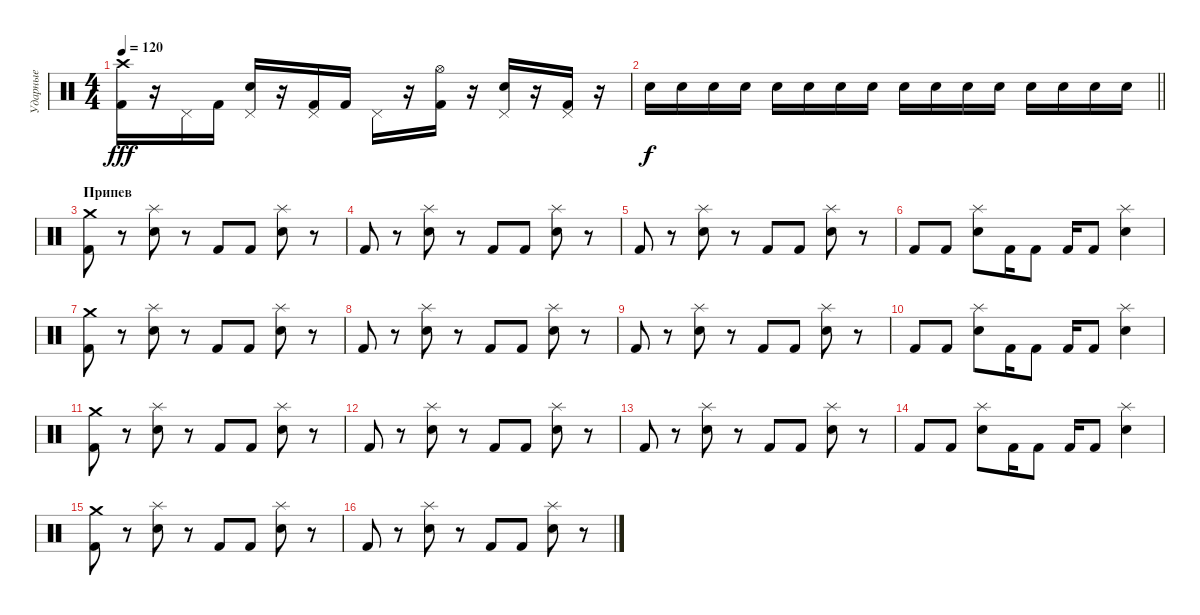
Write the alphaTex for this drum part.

\track ("Ударные" "Ударные") {instrument percussion}
\staff {score}
\articulation defaults
\ts (4 4)
\tempo 120
\clef neutral
\ks c
("Crash high (hit)" "Kick (hit) 2").16{dy fff} r.16 "Pedal Hi-Hat (hit)".16 "Kick (hit) 2".16 ("Pedal Hi-Hat (hit)" "Snare (hit) 2").16 r.16 ("Pedal Hi-Hat (hit)" "Kick (hit) 2").16 "Kick (hit) 2".16 "Pedal Hi-Hat (hit)".16 r.16 ("Hi-Hat (open)" "Kick (hit) 2").16 r.16 ("Pedal Hi-Hat (hit)" "Snare (hit) 2").16 r.16 ("Pedal Hi-Hat (hit)" "Kick (hit) 2").16 r.16 |
\barLineRight lightlight "Snare (hit) 2".16{dy f} "Snare (hit) 2".16 "Snare (hit) 2".16 "Snare (hit) 2".16 "Snare (hit) 2".16 "Snare (hit) 2".16 "Snare (hit) 2".16 "Snare (hit) 2".16 "Snare (hit) 2".16 "Snare (hit) 2".16 "Snare (hit) 2".16 "Snare (hit) 2".16 "Snare (hit) 2".16 "Snare (hit) 2".16 "Snare (hit) 2".16 "Snare (hit) 2".16
|
\section ("" "Припев")
("Kick (hit) 2" "Crash medium (hit)").8 r.8 ("Electric Snare (hit)" "Splash (hit)").8 r.8 "Kick (hit) 2".8 "Kick (hit) 2".8 ("Electric Snare (hit)" "Splash (hit)").8 r.8 |
"Kick (hit) 2".8 r.8 ("Electric Snare (hit)" "Splash (hit)").8 r.8 "Kick (hit) 2".8 "Kick (hit) 2".8 ("Electric Snare (hit)" "Splash (hit)").8 r.8 |
"Kick (hit) 2".8 r.8 ("Electric Snare (hit)" "Splash (hit)").8 r.8 "Kick (hit) 2".8 "Kick (hit) 2".8 ("Electric Snare (hit)" "Splash (hit)").8 r.8 |
"Kick (hit) 2".8 "Kick (hit) 2".8 ("Electric Snare (hit)" "Splash (hit)").8 "Kick (hit) 2".16 "Kick (hit) 2".8 "Kick (hit) 2".16 "Kick (hit) 2".8 ("Electric Snare (hit)" "Splash (hit)").4 |
("Kick (hit) 2" "Crash medium (hit)").8 r.8 ("Electric Snare (hit)" "Splash (hit)").8 r.8 "Kick (hit) 2".8 "Kick (hit) 2".8 ("Electric Snare (hit)" "Splash (hit)").8 r.8 |
"Kick (hit) 2".8 r.8 ("Electric Snare (hit)" "Splash (hit)").8 r.8 "Kick (hit) 2".8 "Kick (hit) 2".8 ("Electric Snare (hit)" "Splash (hit)").8 r.8 |
"Kick (hit) 2".8 r.8 ("Electric Snare (hit)" "Splash (hit)").8 r.8 "Kick (hit) 2".8 "Kick (hit) 2".8 ("Electric Snare (hit)" "Splash (hit)").8 r.8 |
"Kick (hit) 2".8 "Kick (hit) 2".8 ("Electric Snare (hit)" "Splash (hit)").8 "Kick (hit) 2".16 "Kick (hit) 2".8 "Kick (hit) 2".16 "Kick (hit) 2".8 ("Electric Snare (hit)" "Splash (hit)").4 |
("Kick (hit) 2" "Crash medium (hit)").8 r.8 ("Electric Snare (hit)" "Splash (hit)").8 r.8 "Kick (hit) 2".8 "Kick (hit) 2".8 ("Electric Snare (hit)" "Splash (hit)").8 r.8 |
"Kick (hit) 2".8 r.8 ("Electric Snare (hit)" "Splash (hit)").8 r.8 "Kick (hit) 2".8 "Kick (hit) 2".8 ("Electric Snare (hit)" "Splash (hit)").8 r.8 |
"Kick (hit) 2".8 r.8 ("Electric Snare (hit)" "Splash (hit)").8 r.8 "Kick (hit) 2".8 "Kick (hit) 2".8 ("Electric Snare (hit)" "Splash (hit)").8 r.8 |
"Kick (hit) 2".8 "Kick (hit) 2".8 ("Electric Snare (hit)" "Splash (hit)").8 "Kick (hit) 2".16 "Kick (hit) 2".8 "Kick (hit) 2".16 "Kick (hit) 2".8 ("Electric Snare (hit)" "Splash (hit)").4 |
("Kick (hit) 2" "Crash medium (hit)").8 r.8 ("Electric Snare (hit)" "Splash (hit)").8 r.8 "Kick (hit) 2".8 "Kick (hit) 2".8 ("Electric Snare (hit)" "Splash (hit)").8 r.8 |
"Kick (hit) 2".8 r.8 ("Electric Snare (hit)" "Splash (hit)").8 r.8 "Kick (hit) 2".8 "Kick (hit) 2".8 ("Electric Snare (hit)" "Splash (hit)").8 r.8
